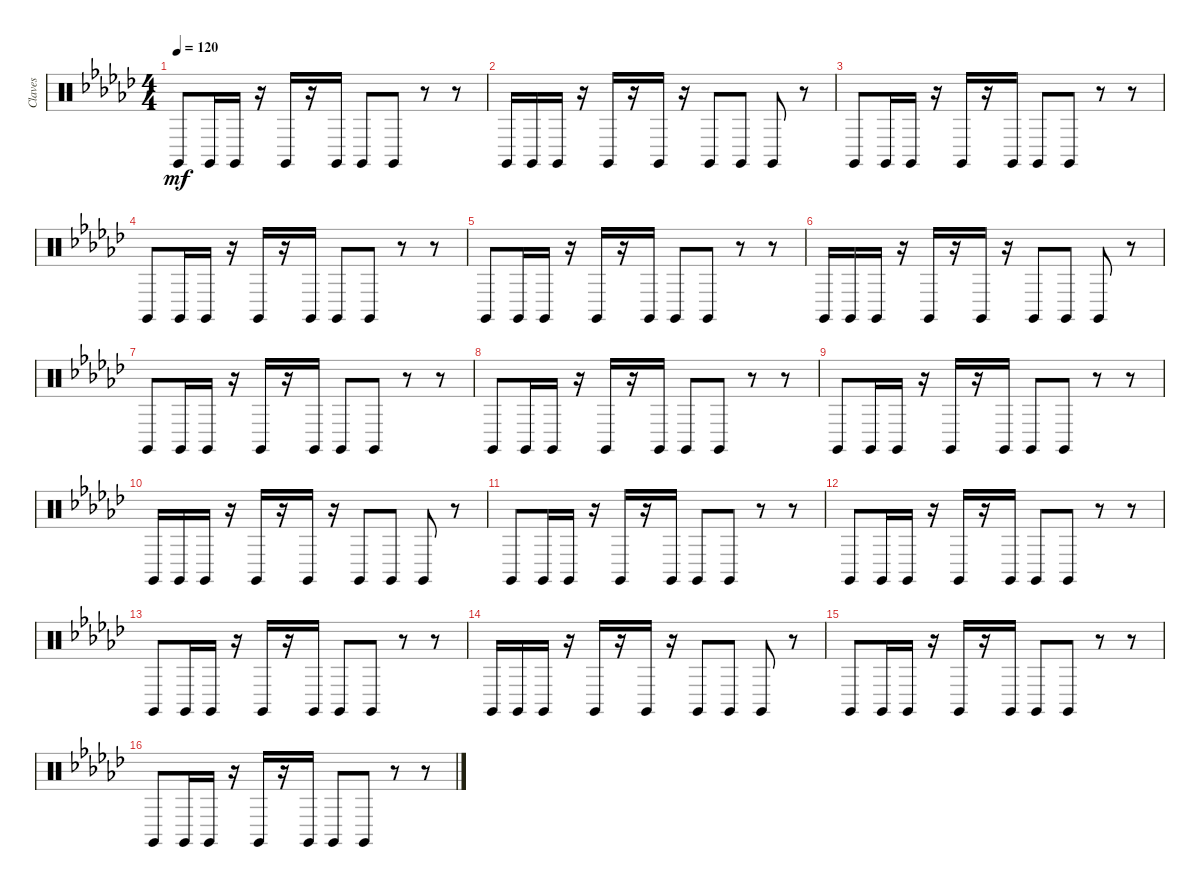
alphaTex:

\track ("Claves" "Claves") {instrument percussion}
\staff {score}
\articulation defaults
\ts (4 4)
\tempo 120
\clef neutral
\ks ebminor "Claves (hit)".8{dy mf} "Claves (hit)".16 "Claves (hit)".16
r.16 "Claves (hit)".16 r.16 "Claves (hit)".16 "Claves (hit)".8 "Claves (hit)".8 r.8 r.8 |
"Claves (hit)".16 "Claves (hit)".16 "Claves (hit)".16 r.16 "Claves (hit)".16 r.16 "Claves (hit)".16 r.16 "Claves (hit)".8 "Claves (hit)".8 "Claves (hit)".8 r.8 |
"Claves (hit)".8 "Claves (hit)".16 "Claves (hit)".16 r.16 "Claves (hit)".16 r.16 "Claves (hit)".16 "Claves (hit)".8 "Claves (hit)".8 r.8 r.8 |
"Claves (hit)".8 "Claves (hit)".16 "Claves (hit)".16 r.16 "Claves (hit)".16 r.16 "Claves (hit)".16 "Claves (hit)".8 "Claves (hit)".8 r.8 r.8 |
"Claves (hit)".8 "Claves (hit)".16 "Claves (hit)".16 r.16 "Claves (hit)".16 r.16 "Claves (hit)".16 "Claves (hit)".8 "Claves (hit)".8 r.8 r.8 |
"Claves (hit)".16 "Claves (hit)".16 "Claves (hit)".16 r.16 "Claves (hit)".16 r.16 "Claves (hit)".16 r.16 "Claves (hit)".8 "Claves (hit)".8 "Claves (hit)".8 r.8 |
"Claves (hit)".8 "Claves (hit)".16 "Claves (hit)".16 r.16 "Claves (hit)".16 r.16 "Claves (hit)".16 "Claves (hit)".8 "Claves (hit)".8 r.8 r.8 |
"Claves (hit)".8 "Claves (hit)".16 "Claves (hit)".16 r.16 "Claves (hit)".16 r.16 "Claves (hit)".16 "Claves (hit)".8 "Claves (hit)".8 r.8 r.8 |
"Claves (hit)".8 "Claves (hit)".16 "Claves (hit)".16 r.16 "Claves (hit)".16 r.16 "Claves (hit)".16 "Claves (hit)".8 "Claves (hit)".8 r.8 r.8 |
"Claves (hit)".16 "Claves (hit)".16 "Claves (hit)".16 r.16 "Claves (hit)".16 r.16 "Claves (hit)".16 r.16 "Claves (hit)".8 "Claves (hit)".8 "Claves (hit)".8 r.8 |
"Claves (hit)".8 "Claves (hit)".16 "Claves (hit)".16 r.16 "Claves (hit)".16 r.16 "Claves (hit)".16 "Claves (hit)".8 "Claves (hit)".8 r.8 r.8 |
"Claves (hit)".8 "Claves (hit)".16 "Claves (hit)".16 r.16 "Claves (hit)".16 r.16 "Claves (hit)".16 "Claves (hit)".8 "Claves (hit)".8 r.8 r.8 |
"Claves (hit)".8 "Claves (hit)".16 "Claves (hit)".16 r.16 "Claves (hit)".16 r.16 "Claves (hit)".16 "Claves (hit)".8 "Claves (hit)".8 r.8 r.8 |
"Claves (hit)".16 "Claves (hit)".16 "Claves (hit)".16 r.16 "Claves (hit)".16 r.16 "Claves (hit)".16 r.16 "Claves (hit)".8 "Claves (hit)".8 "Claves (hit)".8 r.8 |
"Claves (hit)".8 "Claves (hit)".16 "Claves (hit)".16 r.16 "Claves (hit)".16 r.16 "Claves (hit)".16 "Claves (hit)".8 "Claves (hit)".8 r.8 r.8 |
"Claves (hit)".8 "Claves (hit)".16 "Claves (hit)".16 r.16 "Claves (hit)".16 r.16 "Claves (hit)".16 "Claves (hit)".8 "Claves (hit)".8 r.8 r.8
